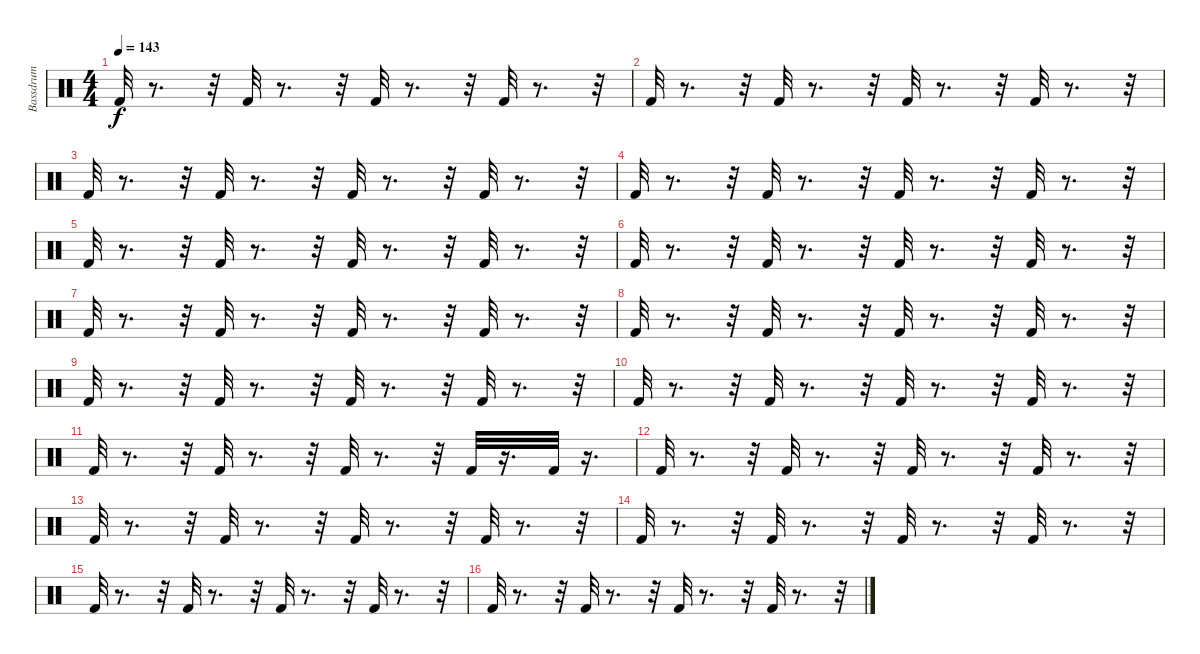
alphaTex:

\track ("Bassdrum " "Bassdrum ") {instrument percussion}
\staff {score}
\articulation defaults
\ts (4 4)
\tempo 143
\clef neutral
\ks c "Kick (hit) 2".32{dy f}
r.8{d} r.32 "Kick (hit) 2".32 r.8{d} r.32 "Kick (hit) 2".32 r.8{d} r.32 "Kick (hit) 2".32 r.8{d} r.32 |
"Kick (hit) 2".32 r.8{d} r.32 "Kick (hit) 2".32 r.8{d} r.32 "Kick (hit) 2".32 r.8{d} r.32 "Kick (hit) 2".32 r.8{d} r.32 |
"Kick (hit) 2".32 r.8{d} r.32 "Kick (hit) 2".32 r.8{d} r.32 "Kick (hit) 2".32 r.8{d} r.32 "Kick (hit) 2".32 r.8{d} r.32 |
"Kick (hit) 2".32 r.8{d} r.32 "Kick (hit) 2".32 r.8{d} r.32 "Kick (hit) 2".32 r.8{d} r.32 "Kick (hit) 2".32 r.8{d} r.32 |
"Kick (hit) 2".32 r.8{d} r.32 "Kick (hit) 2".32 r.8{d} r.32 "Kick (hit) 2".32 r.8{d} r.32 "Kick (hit) 2".32 r.8{d} r.32 |
"Kick (hit) 2".32 r.8{d} r.32 "Kick (hit) 2".32 r.8{d} r.32 "Kick (hit) 2".32 r.8{d} r.32 "Kick (hit) 2".32 r.8{d} r.32 |
"Kick (hit) 2".32 r.8{d} r.32 "Kick (hit) 2".32 r.8{d} r.32 "Kick (hit) 2".32 r.8{d} r.32 "Kick (hit) 2".32 r.8{d} r.32 |
"Kick (hit) 2".32 r.8{d} r.32 "Kick (hit) 2".32 r.8{d} r.32 "Kick (hit) 2".32 r.8{d} r.32 "Kick (hit) 2".32 r.8{d} r.32 |
"Kick (hit) 2".32 r.8{d} r.32 "Kick (hit) 2".32 r.8{d} r.32 "Kick (hit) 2".32 r.8{d} r.32 "Kick (hit) 2".32 r.8{d} r.32 |
"Kick (hit) 2".32 r.8{d} r.32 "Kick (hit) 2".32 r.8{d} r.32 "Kick (hit) 2".32 r.8{d} r.32 "Kick (hit) 2".32 r.8{d} r.32 |
"Kick (hit) 2".32 r.8{d} r.32 "Kick (hit) 2".32 r.8{d} r.32 "Kick (hit) 2".32 r.8{d} r.32 "Kick (hit) 2".32 r.16{d} "Kick (hit) 2".32 r.16{d} |
"Kick (hit) 2".32 r.8{d} r.32 "Kick (hit) 2".32 r.8{d} r.32 "Kick (hit) 2".32 r.8{d} r.32 "Kick (hit) 2".32 r.8{d} r.32 |
"Kick (hit) 2".32 r.8{d} r.32 "Kick (hit) 2".32 r.8{d} r.32 "Kick (hit) 2".32 r.8{d} r.32 "Kick (hit) 2".32 r.8{d} r.32 |
"Kick (hit) 2".32 r.8{d} r.32 "Kick (hit) 2".32 r.8{d} r.32 "Kick (hit) 2".32 r.8{d} r.32 "Kick (hit) 2".32 r.8{d} r.32 |
"Kick (hit) 2".32 r.8{d} r.32 "Kick (hit) 2".32 r.8{d} r.32 "Kick (hit) 2".32 r.8{d} r.32 "Kick (hit) 2".32 r.8{d} r.32 |
"Kick (hit) 2".32 r.8{d} r.32 "Kick (hit) 2".32 r.8{d} r.32 "Kick (hit) 2".32 r.8{d} r.32 "Kick (hit) 2".32 r.8{d} r.32
